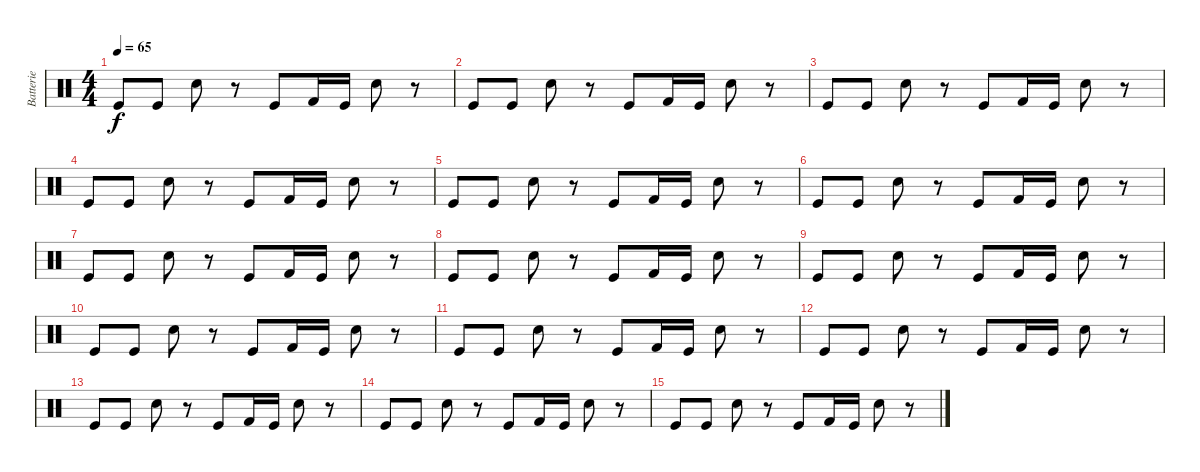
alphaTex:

\track ("Batterie" "Batterie") {instrument percussion}
\staff {score}
\articulation defaults
\ts (4 4)
\tempo 65
\clef neutral
\ks c "Kick (hit)".8{dy f} "Kick (hit)".8 "Electric Snare (hit)".8
r.8 "Kick (hit)".8 "Kick (hit) 2".16 "Kick (hit)".16 "Electric Snare (hit)".8 r.8 |
"Kick (hit)".8 "Kick (hit)".8 "Electric Snare (hit)".8 r.8 "Kick (hit)".8 "Kick (hit) 2".16 "Kick (hit)".16 "Electric Snare (hit)".8 r.8 |
"Kick (hit)".8 "Kick (hit)".8 "Electric Snare (hit)".8 r.8 "Kick (hit)".8 "Kick (hit) 2".16 "Kick (hit)".16 "Electric Snare (hit)".8 r.8 |
"Kick (hit)".8 "Kick (hit)".8 "Electric Snare (hit)".8 r.8 "Kick (hit)".8 "Kick (hit) 2".16 "Kick (hit)".16 "Electric Snare (hit)".8 r.8 |
"Kick (hit)".8 "Kick (hit)".8 "Electric Snare (hit)".8 r.8 "Kick (hit)".8 "Kick (hit) 2".16 "Kick (hit)".16 "Electric Snare (hit)".8 r.8 |
"Kick (hit)".8 "Kick (hit)".8 "Electric Snare (hit)".8 r.8 "Kick (hit)".8 "Kick (hit) 2".16 "Kick (hit)".16 "Electric Snare (hit)".8 r.8 |
"Kick (hit)".8 "Kick (hit)".8 "Electric Snare (hit)".8 r.8 "Kick (hit)".8 "Kick (hit) 2".16 "Kick (hit)".16 "Electric Snare (hit)".8 r.8 |
"Kick (hit)".8 "Kick (hit)".8 "Electric Snare (hit)".8 r.8 "Kick (hit)".8 "Kick (hit) 2".16 "Kick (hit)".16 "Electric Snare (hit)".8 r.8 |
"Kick (hit)".8 "Kick (hit)".8 "Electric Snare (hit)".8 r.8 "Kick (hit)".8 "Kick (hit) 2".16 "Kick (hit)".16 "Electric Snare (hit)".8 r.8 |
"Kick (hit)".8 "Kick (hit)".8 "Electric Snare (hit)".8 r.8 "Kick (hit)".8 "Kick (hit) 2".16 "Kick (hit)".16 "Electric Snare (hit)".8 r.8 |
"Kick (hit)".8 "Kick (hit)".8 "Electric Snare (hit)".8 r.8 "Kick (hit)".8 "Kick (hit) 2".16 "Kick (hit)".16 "Electric Snare (hit)".8 r.8 |
"Kick (hit)".8 "Kick (hit)".8 "Electric Snare (hit)".8 r.8 "Kick (hit)".8 "Kick (hit) 2".16 "Kick (hit)".16 "Electric Snare (hit)".8 r.8 |
"Kick (hit)".8 "Kick (hit)".8 "Electric Snare (hit)".8 r.8 "Kick (hit)".8 "Kick (hit) 2".16 "Kick (hit)".16 "Electric Snare (hit)".8 r.8 |
"Kick (hit)".8 "Kick (hit)".8 "Electric Snare (hit)".8 r.8 "Kick (hit)".8 "Kick (hit) 2".16 "Kick (hit)".16 "Electric Snare (hit)".8 r.8 |
"Kick (hit)".8 "Kick (hit)".8 "Electric Snare (hit)".8 r.8 "Kick (hit)".8 "Kick (hit) 2".16 "Kick (hit)".16 "Electric Snare (hit)".8 r.8
